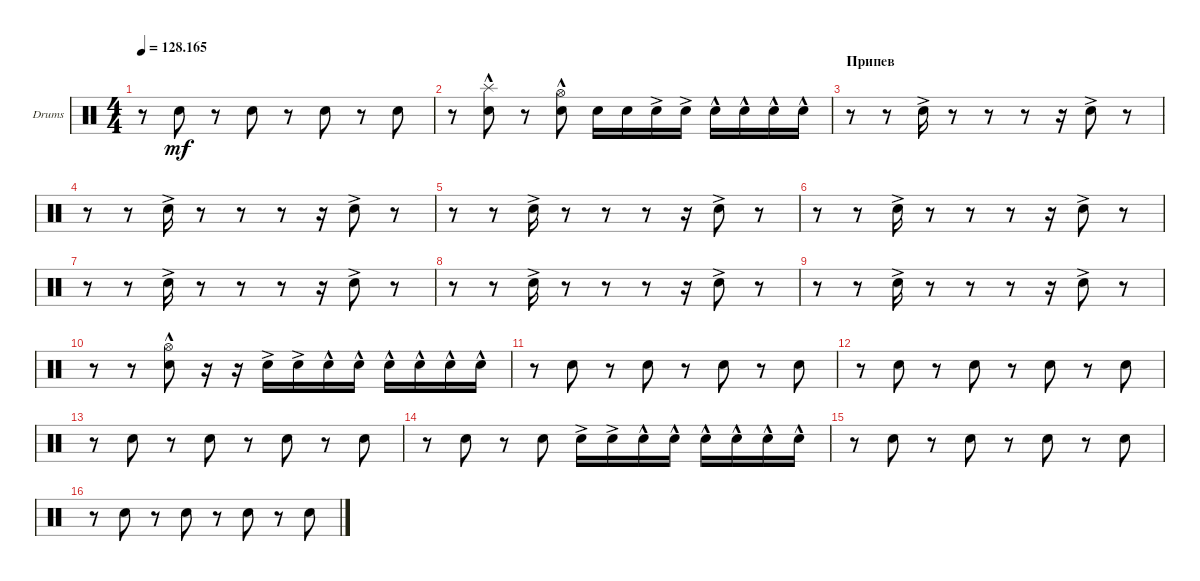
\defaultSystemsLayout 4
\bracketExtendMode groupsimilarinstruments
\firstSystemTrackNameOrientation horizontal
\otherSystemsTrackNameOrientation horizontal
\track ("Drumkit" "Drums") {instrument percussion}
\staff {score}
\articulation defaults
\ts (4 4)
\tempo
128.165
\accidentals auto
\clef neutral
\ottava regular
\simile none
\ks c
r.8{dy mf} "Snare (hit) 2".8 r.8 "Snare (hit) 2".8 r.8 "Snare (hit) 2".8 r.8 "Snare (hit) 2".8 |
r.8 ("Snare (hit) 2" "Splash (hit)"{hac}).8 r.8 ("Snare (hit) 2" "Hi-Hat (open)"{hac}).8 "Snare (hit) 2".16 "Snare (hit) 2".16 "Snare (hit) 2"{ac}.16 "Snare (hit) 2"{ac}.16 "Snare (hit) 2"{hac}.16 "Snare (hit) 2"{hac}.16 "Snare (hit) 2"{hac}.16 "Snare (hit) 2"{hac}.16 |
\section ("" "Припев")
r.8 r.8 "Snare (hit) 2"{ac}.16 r.8 r.8 r.8 r.16 "Snare (hit) 2"{ac}.8 r.8 |
r.8 r.8 "Snare (hit) 2"{ac}.16 r.8 r.8 r.8 r.16 "Snare (hit) 2"{ac}.8 r.8 |
r.8 r.8 "Snare (hit) 2"{ac}.16 r.8 r.8 r.8 r.16 "Snare (hit) 2"{ac}.8 r.8 |
r.8 r.8 "Snare (hit) 2"{ac}.16 r.8 r.8 r.8 r.16 "Snare (hit) 2"{ac}.8 r.8 |
r.8 r.8 "Snare (hit) 2"{ac}.16 r.8 r.8 r.8 r.16 "Snare (hit) 2"{ac}.8 r.8 |
r.8 r.8 "Snare (hit) 2"{ac}.16 r.8 r.8 r.8 r.16 "Snare (hit) 2"{ac}.8 r.8 |
r.8 r.8 "Snare (hit) 2"{ac}.16 r.8 r.8 r.8 r.16 "Snare (hit) 2"{ac}.8 r.8 |
r.8 r.8 ("Snare (hit) 2" "Hi-Hat (open)"{hac}).8 r.16 r.16 "Snare (hit) 2"{ac}.16 "Snare (hit) 2"{ac}.16 "Snare (hit) 2"{hac}.16 "Snare (hit) 2"{hac}.16 "Snare (hit) 2"{hac}.16 "Snare (hit) 2"{hac}.16 "Snare (hit) 2"{hac}.16 "Snare (hit) 2"{hac}.16 |
r.8 "Snare (hit) 2".8 r.8 "Snare (hit) 2".8 r.8 "Snare (hit) 2".8 r.8 "Snare (hit) 2".8 |
r.8 "Snare (hit) 2".8 r.8 "Snare (hit) 2".8 r.8 "Snare (hit) 2".8 r.8 "Snare (hit) 2".8 |
r.8 "Snare (hit) 2".8 r.8 "Snare (hit) 2".8 r.8 "Snare (hit) 2".8 r.8 "Snare (hit) 2".8 |
r.8 "Snare (hit) 2".8 r.8 "Snare (hit) 2".8 "Snare (hit) 2"{ac}.16 "Snare (hit) 2"{ac}.16 "Snare (hit) 2"{hac}.16 "Snare (hit) 2"{hac}.16 "Snare (hit) 2"{hac}.16 "Snare (hit) 2"{hac}.16 "Snare (hit) 2"{hac}.16 "Snare (hit) 2"{hac}.16 |
r.8 "Snare (hit) 2".8 r.8 "Snare (hit) 2".8 r.8 "Snare (hit) 2".8 r.8 "Snare (hit) 2".8 |
r.8 "Snare (hit) 2".8 r.8 "Snare (hit) 2".8 r.8 "Snare (hit) 2".8 r.8 "Snare (hit) 2".8
